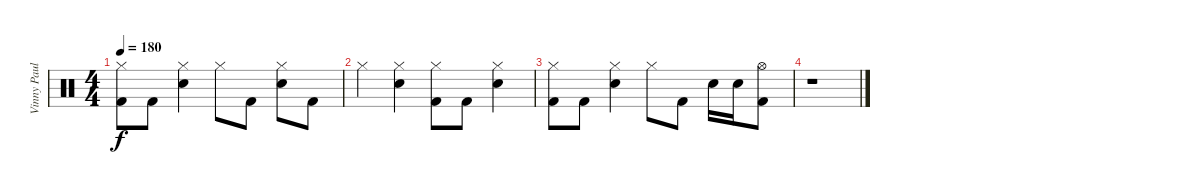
\track ("Vinny Paul" "Vinny Paul") {instrument percussion}
\staff {score}
\articulation defaults
\ts (4 4)
\tempo 180
\clef neutral
\ks c
("Hi-Hat (closed)" "Kick (hit) 2").8{dy f} "Kick (hit) 2".8 ("Hi-Hat (closed)" "Electric Snare (hit)").4 "Hi-Hat (closed)".8 "Kick (hit) 2".8 ("Hi-Hat (closed)" "Electric Snare (hit)").8 "Kick (hit) 2".8 |
"Hi-Hat (closed)".4 ("Hi-Hat (closed)" "Electric Snare (hit)").4 ("Hi-Hat (closed)" "Kick (hit) 2").8 "Kick (hit) 2".8 ("Hi-Hat (closed)" "Electric Snare (hit)").4 |
("Hi-Hat (closed)" "Kick (hit) 2").8 "Kick (hit) 2".8 ("Hi-Hat (closed)" "Electric Snare (hit)").4 "Hi-Hat (closed)".8 "Kick (hit) 2".8 "Electric Snare (hit)".16 "Electric Snare (hit)".16 ("Hi-Hat (open)" "Kick (hit) 2").8 |
r.1
